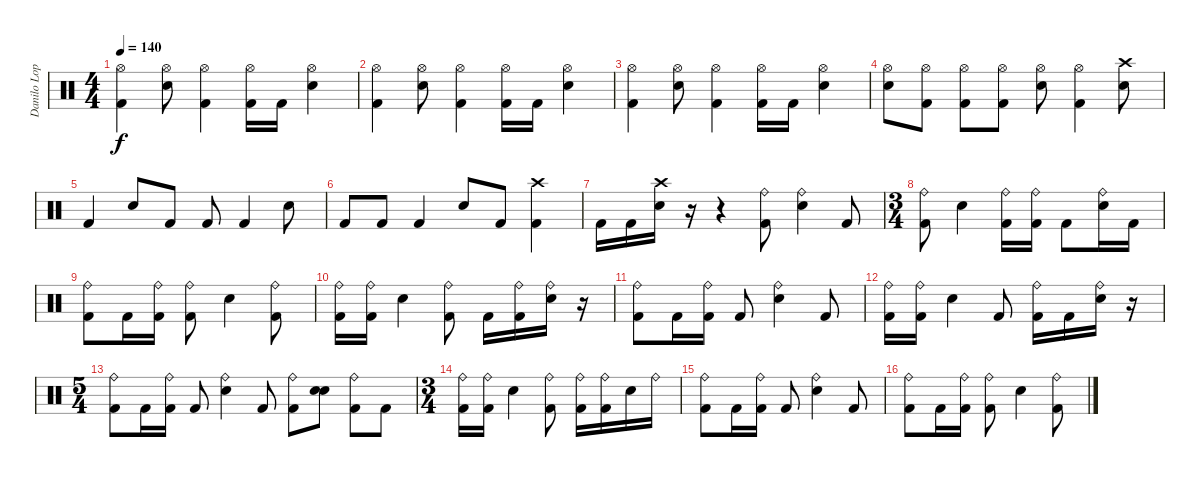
\track ("Danilo Lopes" "Danilo Lop") {instrument percussion}
\staff {score}
\articulation defaults
\ts (4 4)
\tempo 140
\clef neutral
\ks c
("Hi-Hat (open)" "Kick (hit) 2").4{dy f} ("Hi-Hat (open)" "Snare (hit) 2").8 ("Hi-Hat (open)" "Kick (hit) 2").4 ("Hi-Hat (open)" "Kick (hit) 2").16 "Kick (hit) 2".16 ("Hi-Hat (open)" "Snare (hit) 2").4 |
("Hi-Hat (open)" "Kick (hit) 2").4 ("Hi-Hat (open)" "Snare (hit) 2").8 ("Hi-Hat (open)" "Kick (hit) 2").4 ("Hi-Hat (open)" "Kick (hit) 2").16 "Kick (hit) 2".16 ("Hi-Hat (open)" "Snare (hit) 2").4 |
("Hi-Hat (open)" "Kick (hit) 2").4 ("Hi-Hat (open)" "Snare (hit) 2").8 ("Hi-Hat (open)" "Kick (hit) 2").4 ("Hi-Hat (open)" "Kick (hit) 2").16 "Kick (hit) 2".16 ("Hi-Hat (open)" "Snare (hit) 2").4 |
("Hi-Hat (open)" "Snare (hit) 2").8 ("Hi-Hat (open)" "Kick (hit) 2").8 ("Hi-Hat (open)" "Kick (hit) 2").8 ("Hi-Hat (open)" "Kick (hit) 2").8 ("Hi-Hat (open)" "Snare (hit) 2").8 ("Hi-Hat (open)" "Kick (hit) 2").4 ("Crash high (hit)" "Snare (hit) 2").8 |
"Kick (hit) 2".4 "Snare (hit) 2".8 "Kick (hit) 2".8 "Kick (hit) 2".8 "Kick (hit) 2".4 "Snare (hit) 2".8 |
"Kick (hit) 2".8 "Kick (hit) 2".8 "Kick (hit) 2".4 "Snare (hit) 2".8 "Kick (hit) 2".8 ("Crash high (hit)" "Kick (hit) 2").4 |
"Kick (hit) 2".16 "Kick (hit) 2".16 ("Crash high (hit)" "Snare (hit) 2").16 r.16 r.4 ("Ride (bell)" "Kick (hit) 2").8 ("Ride (bell)" "Snare (hit) 2").4 "Kick (hit) 2".8 |
\ts (3 4)
("Ride (bell)" "Kick (hit) 2").8 "Snare (hit) 2".4 ("Ride (bell)" "Kick (hit) 2").16 ("Ride (bell)" "Kick (hit) 2").16 "Kick (hit) 2".8 ("Ride (bell)" "Snare (hit) 2").16 "Kick (hit) 2".16 |
("Ride (bell)" "Kick (hit) 2").8 "Kick (hit) 2".16 ("Ride (bell)" "Kick (hit) 2").16 ("Ride (bell)" "Kick (hit) 2").8 "Snare (hit) 2".4 ("Ride (bell)" "Kick (hit) 2").8 |
("Ride (bell)" "Kick (hit) 2").16 ("Ride (bell)" "Kick (hit) 2").16 "Snare (hit) 2".4 ("Ride (bell)" "Kick (hit) 2").8 "Kick (hit) 2".16 ("Ride (bell)" "Kick (hit) 2").16 ("Ride (bell)" "Snare (hit) 2").16 r.16 |
("Ride (bell)" "Kick (hit) 2").8 "Kick (hit) 2".16 ("Ride (bell)" "Kick (hit) 2").16 "Kick (hit) 2".8 ("Ride (bell)" "Snare (hit) 2").4 "Kick (hit) 2".8 |
("Ride (bell)" "Kick (hit) 2").16 ("Ride (bell)" "Kick (hit) 2").16 "Snare (hit) 2".4 "Kick (hit) 2".8 ("Ride (bell)" "Kick (hit) 2").16 "Kick (hit) 2".16 ("Ride (bell)" "Snare (hit) 2").16 r.16 |
\ts (5 4)
("Ride (bell)" "Kick (hit) 2").8 "Kick (hit) 2".16 ("Ride (bell)" "Kick (hit) 2").16 "Kick (hit) 2".8 ("Ride (bell)" "Snare (hit) 2").4 "Kick (hit) 2".8 ("Ride (bell)" "Kick (hit) 2").8 ("Snare (hit)" "Snare (hit) 2").8 ("Ride (bell)" "Kick (hit) 2").8 "Kick (hit) 2".8 |
\ts (3 4)
("Ride (bell)" "Kick (hit) 2").16 ("Ride (bell)" "Kick (hit) 2").16 "Snare (hit) 2".4 ("Ride (bell)" "Kick (hit) 2").8 ("Ride (bell)" "Kick (hit) 2").16 ("Ride (bell)" "Kick (hit) 2").16 "Snare (hit) 2".16 "Ride (bell)".16 |
("Ride (bell)" "Kick (hit) 2").8 "Kick (hit) 2".16 ("Ride (bell)" "Kick (hit) 2").16 "Kick (hit) 2".8 ("Ride (bell)" "Snare (hit) 2").4 "Kick (hit) 2".8 |
("Ride (bell)" "Kick (hit) 2").8 "Kick (hit) 2".16 ("Ride (bell)" "Kick (hit) 2").16 ("Ride (bell)" "Kick (hit) 2").8 "Snare (hit) 2".4 ("Ride (bell)" "Kick (hit) 2").8
